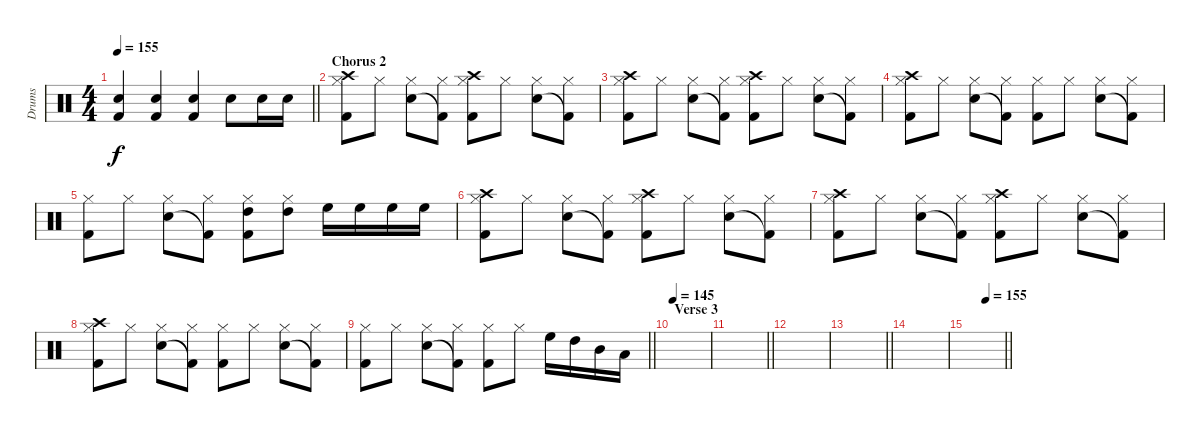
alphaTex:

\track ("Drums" "Drums") {instrument percussion}
\staff {score}
\articulation defaults
\ts (4 4)
\tempo 155
\clef neutral
\barLineRight lightlight
\ks c
("Electric Snare (hit)" "Kick (hit) 2").4{dy f} ("Electric Snare (hit)" "Kick (hit) 2").4 ("Electric Snare (hit)" "Kick (hit) 2").4 "Electric Snare (hit)".8 "Snare (hit) 2".16 "Snare (hit) 2".16 |
\section ("" "Chorus 2")
("Crash high (hit)" "Kick (hit) 2" "Hi-Hat (closed)").8 "Hi-Hat (closed)".8 ("Snare (hit) 2" "Hi-Hat (closed)").8 ("Kick (hit) 2"{t} "Hi-Hat (closed)").8 ("Crash high (hit)" "Kick (hit) 2" "Hi-Hat (closed)").8 "Hi-Hat (closed)".8 ("Snare (hit) 2" "Hi-Hat (closed)").8 ("Kick (hit) 2"{t} "Hi-Hat (closed)").8 |
("Crash high (hit)" "Kick (hit) 2" "Hi-Hat (closed)").8 "Hi-Hat (closed)".8 ("Snare (hit) 2" "Hi-Hat (closed)").8 ("Kick (hit) 2"{t} "Hi-Hat (closed)").8 ("Crash high (hit)" "Kick (hit) 2" "Hi-Hat (closed)").8 "Hi-Hat (closed)".8 ("Snare (hit) 2" "Hi-Hat (closed)").8 ("Kick (hit) 2"{t} "Hi-Hat (closed)").8 |
("Crash high (hit)" "Kick (hit) 2" "Hi-Hat (closed)").8 "Hi-Hat (closed)".8 ("Snare (hit) 2" "Hi-Hat (closed)").8 ("Kick (hit) 2"{t} "Hi-Hat (closed)").8 ("Kick (hit) 2" "Hi-Hat (closed)").8 "Hi-Hat (closed)".8 ("Snare (hit) 2" "Hi-Hat (closed)").8 ("Kick (hit) 2"{t} "Hi-Hat (closed)").8 |
("Kick (hit) 2" "Hi-Hat (closed)").8 "Hi-Hat (closed)".8 ("Snare (hit) 2" "Hi-Hat (closed)").8 ("Kick (hit) 2"{t} "Hi-Hat (closed)").8 ("Kick (hit) 2" "Hi-Hat (closed)" "High Tom (hit)").8 ("Hi-Hat (closed)" "High Tom (hit)").8 "High Floor Tom (hit)".16 "High Floor Tom (hit)".16 "High Floor Tom (hit)".16 "High Floor Tom (hit)".16 |
("Crash high (hit)" "Kick (hit) 2" "Hi-Hat (closed)").8 "Hi-Hat (closed)".8 ("Snare (hit) 2" "Hi-Hat (closed)").8 ("Kick (hit) 2"{t} "Hi-Hat (closed)").8 ("Crash high (hit)" "Kick (hit) 2" "Hi-Hat (closed)").8 "Hi-Hat (closed)".8 ("Snare (hit) 2" "Hi-Hat (closed)").8 ("Kick (hit) 2"{t} "Hi-Hat (closed)").8 |
("Crash high (hit)" "Kick (hit) 2" "Hi-Hat (closed)").8 "Hi-Hat (closed)".8 ("Snare (hit) 2" "Hi-Hat (closed)").8 ("Kick (hit) 2"{t} "Hi-Hat (closed)").8 ("Crash high (hit)" "Kick (hit) 2" "Hi-Hat (closed)").8 "Hi-Hat (closed)".8 ("Snare (hit) 2" "Hi-Hat (closed)").8 ("Kick (hit) 2"{t} "Hi-Hat (closed)").8 |
("Crash high (hit)" "Kick (hit) 2" "Hi-Hat (closed)").8 "Hi-Hat (closed)".8 ("Snare (hit) 2" "Hi-Hat (closed)").8 ("Kick (hit) 2"{t} "Hi-Hat (closed)").8 ("Kick (hit) 2" "Hi-Hat (closed)").8 "Hi-Hat (closed)".8 ("Snare (hit) 2" "Hi-Hat (closed)").8 ("Kick (hit) 2"{t} "Hi-Hat (closed)").8 |
\barLineRight lightlight
("Kick (hit) 2" "Hi-Hat (closed)").8 "Hi-Hat (closed)".8 ("Snare (hit) 2" "Hi-Hat (closed)").8 ("Kick (hit) 2"{t} "Hi-Hat (closed)").8 ("Kick (hit) 2" "Hi-Hat (closed)").8 "Hi-Hat (closed)".8 "High Floor Tom (hit)".16 "High Tom (hit)".16 "Mid Tom (hit)".16 "Low Tom (hit)".16 |
\section ("" "Verse 3")
\tempo 145
|
\barLineRight lightlight
|
|
\barLineRight lightlight
|
|
\tempo (155 0.5)
\barLineRight lightlight
